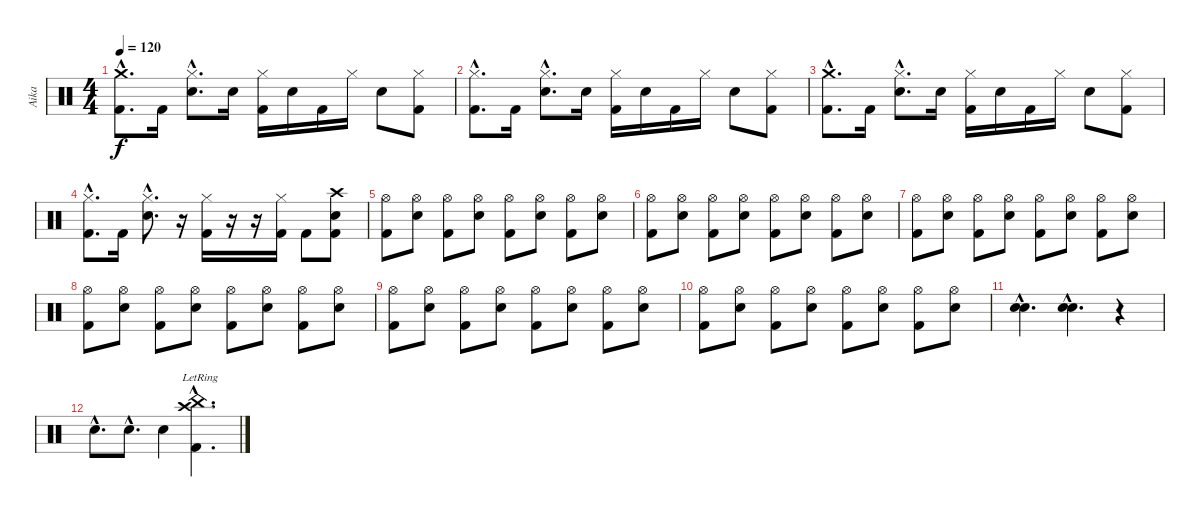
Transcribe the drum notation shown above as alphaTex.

\track ("Aika" "Aika") {instrument percussion}
\staff {score}
\articulation defaults
\ts (4 4)
\tempo 120
\clef neutral
\ks c
("Crash medium (hit)"{hac} "Kick (hit) 2"{hac}).8{d dy f} "Kick (hit) 2".16 ("Hi-Hat (closed)"{hac} "Snare (hit) 2"{hac}).8{d} "Snare (hit) 2".16 ("Hi-Hat (closed)" "Kick (hit) 2").16 "Snare (hit) 2".16 "Kick (hit) 2".16 "Hi-Hat (closed)".16 "Snare (hit) 2".8 ("Hi-Hat (closed)" "Kick (hit) 2").8 |
("Hi-Hat (closed)"{hac} "Kick (hit) 2"{hac}).8{d} "Kick (hit) 2".16 ("Hi-Hat (closed)"{hac} "Snare (hit) 2"{hac}).8{d} "Snare (hit) 2".16 ("Hi-Hat (closed)" "Kick (hit) 2").16 "Snare (hit) 2".16 "Kick (hit) 2".16 "Hi-Hat (closed)".16 "Snare (hit) 2".8 ("Hi-Hat (closed)" "Kick (hit) 2").8 |
("Crash medium (hit)"{hac} "Kick (hit) 2"{hac}).8{d} "Kick (hit) 2".16 ("Hi-Hat (closed)"{hac} "Snare (hit) 2"{hac}).8{d} "Snare (hit) 2".16 ("Hi-Hat (closed)" "Kick (hit) 2").16 "Snare (hit) 2".16 "Kick (hit) 2".16 "Hi-Hat (closed)".16 "Snare (hit) 2".8 ("Hi-Hat (closed)" "Kick (hit) 2").8 |
("Hi-Hat (closed)"{hac} "Kick (hit) 2"{hac}).8{d} "Kick (hit) 2".16 ("Hi-Hat (closed)"{hac} "Snare (hit) 2"{hac}).8{d} r.16 ("Hi-Hat (closed)" "Kick (hit) 2").16 r.16 r.16 ("Hi-Hat (closed)" "Kick (hit) 2").16 "Kick (hit) 2".8 ("Crash high (hit)" "Snare (hit) 2" "Kick (hit) 2").8 |
("Hi-Hat (open)" "Kick (hit) 2").8 ("Hi-Hat (open)" "Snare (hit) 2").8 ("Hi-Hat (open)" "Kick (hit) 2").8 ("Hi-Hat (open)" "Snare (hit) 2").8 ("Hi-Hat (open)" "Kick (hit) 2").8 ("Hi-Hat (open)" "Snare (hit) 2").8 ("Hi-Hat (open)" "Kick (hit) 2").8 ("Hi-Hat (open)" "Snare (hit) 2").8 |
("Hi-Hat (open)" "Kick (hit) 2").8 ("Hi-Hat (open)" "Snare (hit) 2").8 ("Hi-Hat (open)" "Kick (hit) 2").8 ("Hi-Hat (open)" "Snare (hit) 2").8 ("Hi-Hat (open)" "Kick (hit) 2").8 ("Hi-Hat (open)" "Snare (hit) 2").8 ("Hi-Hat (open)" "Kick (hit) 2").8 ("Hi-Hat (open)" "Snare (hit) 2").8 |
("Hi-Hat (open)" "Kick (hit) 2").8 ("Hi-Hat (open)" "Snare (hit) 2").8 ("Hi-Hat (open)" "Kick (hit) 2").8 ("Hi-Hat (open)" "Snare (hit) 2").8 ("Hi-Hat (open)" "Kick (hit) 2").8 ("Hi-Hat (open)" "Snare (hit) 2").8 ("Hi-Hat (open)" "Kick (hit) 2").8 ("Hi-Hat (open)" "Snare (hit) 2").8 |
("Hi-Hat (open)" "Kick (hit) 2").8 ("Hi-Hat (open)" "Snare (hit) 2").8 ("Hi-Hat (open)" "Kick (hit) 2").8 ("Hi-Hat (open)" "Snare (hit) 2").8 ("Hi-Hat (open)" "Kick (hit) 2").8 ("Hi-Hat (open)" "Snare (hit) 2").8 ("Hi-Hat (open)" "Kick (hit) 2").8 ("Hi-Hat (open)" "Snare (hit) 2").8 |
("Hi-Hat (open)" "Kick (hit) 2").8 ("Hi-Hat (open)" "Snare (hit) 2").8 ("Hi-Hat (open)" "Kick (hit) 2").8 ("Hi-Hat (open)" "Snare (hit) 2").8 ("Hi-Hat (open)" "Kick (hit) 2").8 ("Hi-Hat (open)" "Snare (hit) 2").8 ("Hi-Hat (open)" "Kick (hit) 2").8 ("Hi-Hat (open)" "Snare (hit) 2").8 |
("Hi-Hat (open)" "Kick (hit) 2").8 ("Hi-Hat (open)" "Snare (hit) 2").8 ("Hi-Hat (open)" "Kick (hit) 2").8 ("Hi-Hat (open)" "Snare (hit) 2").8 ("Hi-Hat (open)" "Kick (hit) 2").8 ("Hi-Hat (open)" "Snare (hit) 2").8 ("Hi-Hat (open)" "Kick (hit) 2").8 ("Hi-Hat (open)" "Snare (hit) 2").8 |
("Snare (hit) 2"{hac} "Snare (hit) 2"{hac}).4{d} ("Snare (hit) 2"{hac} "Snare (hit) 2"{hac}).4{d} r.4 |
"Snare (hit) 2"{hac}.8{d} "Snare (hit) 2"{hac}.8{d} "Snare (hit) 2".4 ("Crash high (hit)"{hac lr} "China (hit)"{hac lr} "Kick (hit) 2"{hac}).4{d}
